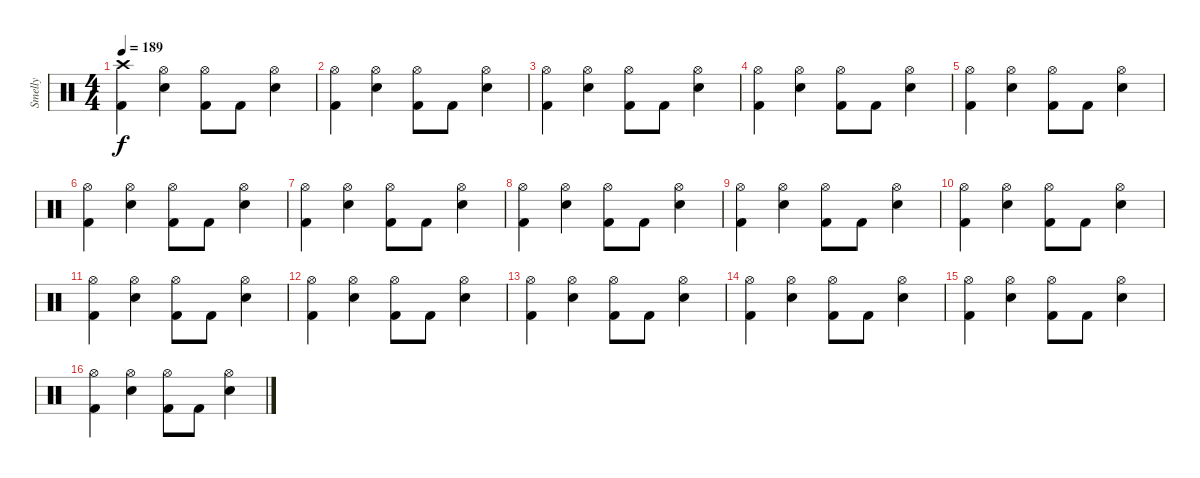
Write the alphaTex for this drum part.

\track ("Smelly" "Smelly") {instrument percussion}
\staff {score}
\articulation defaults
\ts (4 4)
\section ("" "")
\tempo 189
\clef neutral
\ks c
("Crash high (hit)" "Kick (hit) 2").4{dy f} ("Hi-Hat (open)" "Electric Snare (hit)").4 ("Hi-Hat (open)" "Kick (hit) 2").8 "Kick (hit) 2".8 ("Hi-Hat (open)" "Electric Snare (hit)").4 |
("Hi-Hat (open)" "Kick (hit) 2").4 ("Hi-Hat (open)" "Electric Snare (hit)").4 ("Hi-Hat (open)" "Kick (hit) 2").8 "Kick (hit) 2".8 ("Hi-Hat (open)" "Electric Snare (hit)").4 |
("Hi-Hat (open)" "Kick (hit) 2").4 ("Hi-Hat (open)" "Electric Snare (hit)").4 ("Hi-Hat (open)" "Kick (hit) 2").8 "Kick (hit) 2".8 ("Hi-Hat (open)" "Electric Snare (hit)").4 |
("Hi-Hat (open)" "Kick (hit) 2").4 ("Hi-Hat (open)" "Electric Snare (hit)").4 ("Hi-Hat (open)" "Kick (hit) 2").8 "Kick (hit) 2".8 ("Hi-Hat (open)" "Electric Snare (hit)").4 |
("Hi-Hat (open)" "Kick (hit) 2").4 ("Hi-Hat (open)" "Electric Snare (hit)").4 ("Hi-Hat (open)" "Kick (hit) 2").8 "Kick (hit) 2".8 ("Hi-Hat (open)" "Electric Snare (hit)").4 |
("Hi-Hat (open)" "Kick (hit) 2").4 ("Hi-Hat (open)" "Electric Snare (hit)").4 ("Hi-Hat (open)" "Kick (hit) 2").8 "Kick (hit) 2".8 ("Hi-Hat (open)" "Electric Snare (hit)").4 |
("Hi-Hat (open)" "Kick (hit) 2").4 ("Hi-Hat (open)" "Electric Snare (hit)").4 ("Hi-Hat (open)" "Kick (hit) 2").8 "Kick (hit) 2".8 ("Hi-Hat (open)" "Electric Snare (hit)").4 |
("Hi-Hat (open)" "Kick (hit) 2").4 ("Hi-Hat (open)" "Electric Snare (hit)").4 ("Hi-Hat (open)" "Kick (hit) 2").8 "Kick (hit) 2".8 ("Hi-Hat (open)" "Electric Snare (hit)").4 |
("Hi-Hat (open)" "Kick (hit) 2").4 ("Hi-Hat (open)" "Electric Snare (hit)").4 ("Hi-Hat (open)" "Kick (hit) 2").8 "Kick (hit) 2".8 ("Hi-Hat (open)" "Electric Snare (hit)").4 |
("Hi-Hat (open)" "Kick (hit) 2").4 ("Hi-Hat (open)" "Electric Snare (hit)").4 ("Hi-Hat (open)" "Kick (hit) 2").8 "Kick (hit) 2".8 ("Hi-Hat (open)" "Electric Snare (hit)").4 |
("Hi-Hat (open)" "Kick (hit) 2").4 ("Hi-Hat (open)" "Electric Snare (hit)").4 ("Hi-Hat (open)" "Kick (hit) 2").8 "Kick (hit) 2".8 ("Hi-Hat (open)" "Electric Snare (hit)").4 |
("Hi-Hat (open)" "Kick (hit) 2").4 ("Hi-Hat (open)" "Electric Snare (hit)").4 ("Hi-Hat (open)" "Kick (hit) 2").8 "Kick (hit) 2".8 ("Hi-Hat (open)" "Electric Snare (hit)").4 |
("Hi-Hat (open)" "Kick (hit) 2").4 ("Hi-Hat (open)" "Electric Snare (hit)").4 ("Hi-Hat (open)" "Kick (hit) 2").8 "Kick (hit) 2".8 ("Hi-Hat (open)" "Electric Snare (hit)").4 |
("Hi-Hat (open)" "Kick (hit) 2").4 ("Hi-Hat (open)" "Electric Snare (hit)").4 ("Hi-Hat (open)" "Kick (hit) 2").8 "Kick (hit) 2".8 ("Hi-Hat (open)" "Electric Snare (hit)").4 |
("Hi-Hat (open)" "Kick (hit) 2").4 ("Hi-Hat (open)" "Electric Snare (hit)").4 ("Hi-Hat (open)" "Kick (hit) 2").8 "Kick (hit) 2".8 ("Hi-Hat (open)" "Electric Snare (hit)").4 |
("Hi-Hat (open)" "Kick (hit) 2").4 ("Hi-Hat (open)" "Electric Snare (hit)").4 ("Hi-Hat (open)" "Kick (hit) 2").8 "Kick (hit) 2".8 ("Hi-Hat (open)" "Electric Snare (hit)").4
